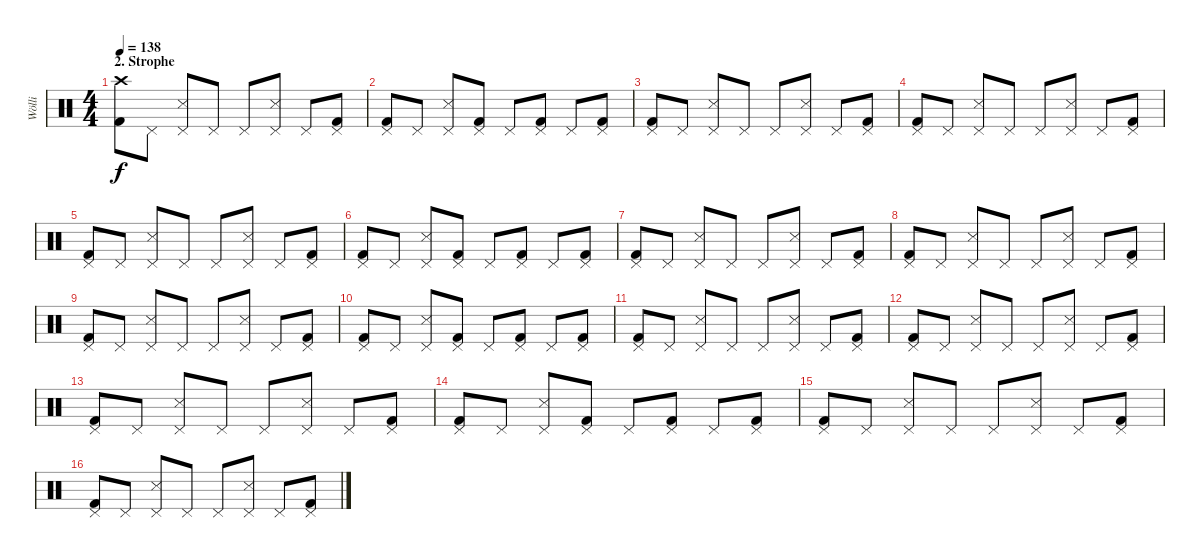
\track ("Wölli" "Wölli") {instrument percussion}
\staff {score}
\articulation defaults
\ts (4 4)
\section ("" "2. Strophe")
\tempo 138
\clef neutral
\ks c
("Crash high (hit)" "Kick (hit) 2").8{dy f} "Pedal Hi-Hat (hit)".8 ("Pedal Hi-Hat (hit)" "Snare (side stick) 3").8 "Pedal Hi-Hat (hit)".8 "Pedal Hi-Hat (hit)".8 ("Pedal Hi-Hat (hit)" "Snare (side stick) 3").8 "Pedal Hi-Hat (hit)".8 ("Pedal Hi-Hat (hit)" "Kick (hit) 2").8 |
("Pedal Hi-Hat (hit)" "Kick (hit) 2").8 "Pedal Hi-Hat (hit)".8 ("Pedal Hi-Hat (hit)" "Snare (side stick) 3").8 ("Pedal Hi-Hat (hit)" "Kick (hit) 2").8 "Pedal Hi-Hat (hit)".8 ("Pedal Hi-Hat (hit)" "Kick (hit) 2").8 "Pedal Hi-Hat (hit)".8 ("Pedal Hi-Hat (hit)" "Kick (hit) 2").8 |
("Pedal Hi-Hat (hit)" "Kick (hit) 2").8 "Pedal Hi-Hat (hit)".8 ("Pedal Hi-Hat (hit)" "Snare (side stick) 3").8 "Pedal Hi-Hat (hit)".8 "Pedal Hi-Hat (hit)".8 ("Pedal Hi-Hat (hit)" "Snare (side stick) 3").8 "Pedal Hi-Hat (hit)".8 ("Pedal Hi-Hat (hit)" "Kick (hit) 2").8 |
("Pedal Hi-Hat (hit)" "Kick (hit) 2").8 "Pedal Hi-Hat (hit)".8 ("Pedal Hi-Hat (hit)" "Snare (side stick) 3").8 "Pedal Hi-Hat (hit)".8 "Pedal Hi-Hat (hit)".8 ("Pedal Hi-Hat (hit)" "Snare (side stick) 3").8 "Pedal Hi-Hat (hit)".8 ("Pedal Hi-Hat (hit)" "Kick (hit) 2").8 |
("Pedal Hi-Hat (hit)" "Kick (hit) 2").8 "Pedal Hi-Hat (hit)".8 ("Pedal Hi-Hat (hit)" "Snare (side stick) 3").8 "Pedal Hi-Hat (hit)".8 "Pedal Hi-Hat (hit)".8 ("Pedal Hi-Hat (hit)" "Snare (side stick) 3").8 "Pedal Hi-Hat (hit)".8 ("Pedal Hi-Hat (hit)" "Kick (hit) 2").8 |
("Pedal Hi-Hat (hit)" "Kick (hit) 2").8 "Pedal Hi-Hat (hit)".8 ("Pedal Hi-Hat (hit)" "Snare (side stick) 3").8 ("Pedal Hi-Hat (hit)" "Kick (hit) 2").8 "Pedal Hi-Hat (hit)".8 ("Pedal Hi-Hat (hit)" "Kick (hit) 2").8 "Pedal Hi-Hat (hit)".8 ("Pedal Hi-Hat (hit)" "Kick (hit) 2").8 |
("Pedal Hi-Hat (hit)" "Kick (hit) 2").8 "Pedal Hi-Hat (hit)".8 ("Pedal Hi-Hat (hit)" "Snare (side stick) 3").8 "Pedal Hi-Hat (hit)".8 "Pedal Hi-Hat (hit)".8 ("Pedal Hi-Hat (hit)" "Snare (side stick) 3").8 "Pedal Hi-Hat (hit)".8 ("Pedal Hi-Hat (hit)" "Kick (hit) 2").8 |
("Pedal Hi-Hat (hit)" "Kick (hit) 2").8 "Pedal Hi-Hat (hit)".8 ("Pedal Hi-Hat (hit)" "Snare (side stick) 3").8 "Pedal Hi-Hat (hit)".8 "Pedal Hi-Hat (hit)".8 ("Pedal Hi-Hat (hit)" "Snare (side stick) 3").8 "Pedal Hi-Hat (hit)".8 ("Pedal Hi-Hat (hit)" "Kick (hit) 2").8 |
("Pedal Hi-Hat (hit)" "Kick (hit) 2").8 "Pedal Hi-Hat (hit)".8 ("Pedal Hi-Hat (hit)" "Snare (side stick) 3").8 "Pedal Hi-Hat (hit)".8 "Pedal Hi-Hat (hit)".8 ("Pedal Hi-Hat (hit)" "Snare (side stick) 3").8 "Pedal Hi-Hat (hit)".8 ("Pedal Hi-Hat (hit)" "Kick (hit) 2").8 |
("Pedal Hi-Hat (hit)" "Kick (hit) 2").8 "Pedal Hi-Hat (hit)".8 ("Pedal Hi-Hat (hit)" "Snare (side stick) 3").8 ("Pedal Hi-Hat (hit)" "Kick (hit) 2").8 "Pedal Hi-Hat (hit)".8 ("Pedal Hi-Hat (hit)" "Kick (hit) 2").8 "Pedal Hi-Hat (hit)".8 ("Pedal Hi-Hat (hit)" "Kick (hit) 2").8 |
("Pedal Hi-Hat (hit)" "Kick (hit) 2").8 "Pedal Hi-Hat (hit)".8 ("Pedal Hi-Hat (hit)" "Snare (side stick) 3").8 "Pedal Hi-Hat (hit)".8 "Pedal Hi-Hat (hit)".8 ("Pedal Hi-Hat (hit)" "Snare (side stick) 3").8 "Pedal Hi-Hat (hit)".8 ("Pedal Hi-Hat (hit)" "Kick (hit) 2").8 |
("Pedal Hi-Hat (hit)" "Kick (hit) 2").8 "Pedal Hi-Hat (hit)".8 ("Pedal Hi-Hat (hit)" "Snare (side stick) 3").8 "Pedal Hi-Hat (hit)".8 "Pedal Hi-Hat (hit)".8 ("Pedal Hi-Hat (hit)" "Snare (side stick) 3").8 "Pedal Hi-Hat (hit)".8 ("Pedal Hi-Hat (hit)" "Kick (hit) 2").8 |
("Pedal Hi-Hat (hit)" "Kick (hit) 2").8 "Pedal Hi-Hat (hit)".8 ("Pedal Hi-Hat (hit)" "Snare (side stick) 3").8 "Pedal Hi-Hat (hit)".8 "Pedal Hi-Hat (hit)".8 ("Pedal Hi-Hat (hit)" "Snare (side stick) 3").8 "Pedal Hi-Hat (hit)".8 ("Pedal Hi-Hat (hit)" "Kick (hit) 2").8 |
("Pedal Hi-Hat (hit)" "Kick (hit) 2").8 "Pedal Hi-Hat (hit)".8 ("Pedal Hi-Hat (hit)" "Snare (side stick) 3").8 ("Pedal Hi-Hat (hit)" "Kick (hit) 2").8 "Pedal Hi-Hat (hit)".8 ("Pedal Hi-Hat (hit)" "Kick (hit) 2").8 "Pedal Hi-Hat (hit)".8 ("Pedal Hi-Hat (hit)" "Kick (hit) 2").8 |
("Pedal Hi-Hat (hit)" "Kick (hit) 2").8 "Pedal Hi-Hat (hit)".8 ("Pedal Hi-Hat (hit)" "Snare (side stick) 3").8 "Pedal Hi-Hat (hit)".8 "Pedal Hi-Hat (hit)".8 ("Pedal Hi-Hat (hit)" "Snare (side stick) 3").8 "Pedal Hi-Hat (hit)".8 ("Pedal Hi-Hat (hit)" "Kick (hit) 2").8 |
("Pedal Hi-Hat (hit)" "Kick (hit) 2").8 "Pedal Hi-Hat (hit)".8 ("Pedal Hi-Hat (hit)" "Snare (side stick) 3").8 "Pedal Hi-Hat (hit)".8 "Pedal Hi-Hat (hit)".8 ("Pedal Hi-Hat (hit)" "Snare (side stick) 3").8 "Pedal Hi-Hat (hit)".8 ("Pedal Hi-Hat (hit)" "Kick (hit) 2").8
